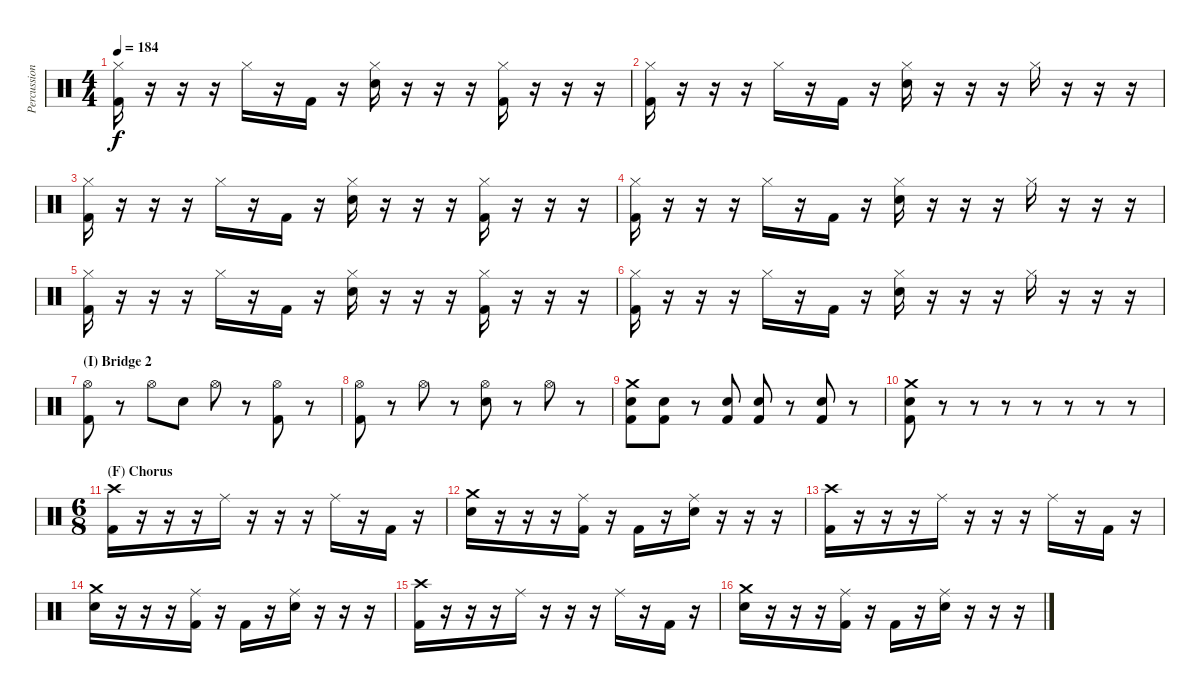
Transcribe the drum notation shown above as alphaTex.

\track ("Percussion" "Percussion") {instrument percussion}
\staff {score}
\articulation defaults
\ts (4 4)
\tempo 184
\clef neutral
\ks c
("Hi-Hat (closed)" "Kick (hit) 2").16{dy f} r.16 r.16 r.16 "Hi-Hat (closed)".16 r.16 "Kick (hit) 2".16 r.16 ("Hi-Hat (closed)" "Electric Snare (hit)").16 r.16 r.16 r.16 ("Hi-Hat (closed)" "Kick (hit) 2").16 r.16 r.16 r.16 |
("Hi-Hat (closed)" "Kick (hit) 2").16 r.16 r.16 r.16 "Hi-Hat (closed)".16 r.16 "Kick (hit) 2".16 r.16 ("Hi-Hat (closed)" "Electric Snare (hit)").16 r.16 r.16 r.16 "Hi-Hat (closed)".16 r.16 r.16 r.16 |
("Hi-Hat (closed)" "Kick (hit) 2").16 r.16 r.16 r.16 "Hi-Hat (closed)".16 r.16 "Kick (hit) 2".16 r.16 ("Hi-Hat (closed)" "Electric Snare (hit)").16 r.16 r.16 r.16 ("Hi-Hat (closed)" "Kick (hit) 2").16 r.16 r.16 r.16 |
("Hi-Hat (closed)" "Kick (hit) 2").16 r.16 r.16 r.16 "Hi-Hat (closed)".16 r.16 "Kick (hit) 2".16 r.16 ("Hi-Hat (closed)" "Electric Snare (hit)").16 r.16 r.16 r.16 "Hi-Hat (closed)".16 r.16 r.16 r.16 |
("Hi-Hat (closed)" "Kick (hit) 2").16 r.16 r.16 r.16 "Hi-Hat (closed)".16 r.16 "Kick (hit) 2".16 r.16 ("Hi-Hat (closed)" "Electric Snare (hit)").16 r.16 r.16 r.16 ("Hi-Hat (closed)" "Kick (hit) 2").16 r.16 r.16 r.16 |
("Hi-Hat (closed)" "Kick (hit) 2").16 r.16 r.16 r.16 "Hi-Hat (closed)".16 r.16 "Kick (hit) 2".16 r.16 ("Hi-Hat (closed)" "Electric Snare (hit)").16 r.16 r.16 r.16 "Hi-Hat (closed)".16 r.16 r.16 r.16 |
\section ("" "(I) Bridge 2")
("Hi-Hat (open)" "Kick (hit) 2").8 r.8 "Hi-Hat (open)".8 "Electric Snare (hit)".8 "Hi-Hat (open)".8 r.8 ("Hi-Hat (open)" "Kick (hit) 2").8 r.8 |
("Hi-Hat (open)" "Kick (hit) 2").8 r.8 "Hi-Hat (open)".8 r.8 ("Hi-Hat (open)" "Electric Snare (hit)").8 r.8 "Hi-Hat (open)".8 r.8 |
("Crash medium (hit)" "Electric Snare (hit)" "Kick (hit) 2").8 ("Electric Snare (hit)" "Kick (hit) 2").8 r.8 ("Electric Snare (hit)" "Kick (hit) 2").8 ("Electric Snare (hit)" "Kick (hit) 2").8 r.8 ("Electric Snare (hit)" "Kick (hit) 2").8 r.8 |
("Crash medium (hit)" "Electric Snare (hit)" "Kick (hit) 2").8 r.8 r.8 r.8 r.8 r.8 r.8 r.8 |
\ts (6 8)
\section ("" "(F) Chorus")
("Crash high (hit)" "Kick (hit) 2").16 r.16 r.16 r.16 "Ride (middle)".16 r.16 r.16 r.16 "Ride (middle)".16 r.16 "Kick (hit) 2".16 r.16 |
("Crash medium (hit)" "Electric Snare (hit)").16 r.16 r.16 r.16 ("Ride (middle)" "Kick (hit) 2").16 r.16 "Kick (hit) 2".16 r.16 ("Ride (middle)" "Electric Snare (hit)").16 r.16 r.16 r.16 |
("Crash high (hit)" "Kick (hit) 2").16 r.16 r.16 r.16 "Ride (middle)".16 r.16 r.16 r.16 "Ride (middle)".16 r.16 "Kick (hit) 2".16 r.16 |
("Crash medium (hit)" "Electric Snare (hit)").16 r.16 r.16 r.16 ("Ride (middle)" "Kick (hit) 2").16 r.16 "Kick (hit) 2".16 r.16 ("Ride (middle)" "Electric Snare (hit)").16 r.16 r.16 r.16 |
("Crash high (hit)" "Kick (hit) 2").16 r.16 r.16 r.16 "Ride (middle)".16 r.16 r.16 r.16 "Ride (middle)".16 r.16 "Kick (hit) 2".16 r.16 |
("Crash medium (hit)" "Electric Snare (hit)").16 r.16 r.16 r.16 ("Ride (middle)" "Kick (hit) 2").16 r.16 "Kick (hit) 2".16 r.16 ("Ride (middle)" "Electric Snare (hit)").16 r.16 r.16 r.16
